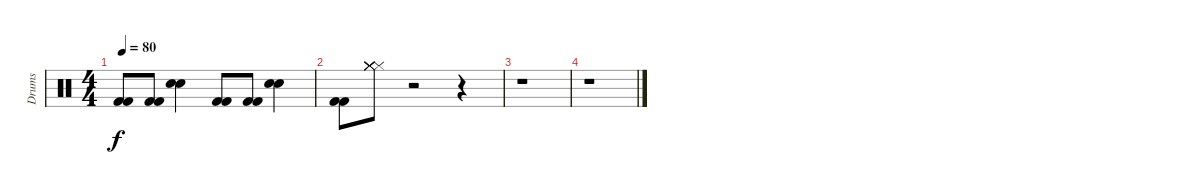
\track ("Drums" "Drums") {instrument percussion}
\staff {score}
\articulation defaults
\ts (4 4)
\tempo 80
\clef neutral
\ks c
("Kick (hit) 2" "Kick (hit) 2").8{dy f} ("Kick (hit) 2" "Kick (hit) 2").8 ("Electric Snare (hit)" "Electric Snare (hit)").4 ("Kick (hit) 2" "Kick (hit) 2").8 ("Kick (hit) 2" "Kick (hit) 2").8 ("Electric Snare (hit)" "Electric Snare (hit)").4 |
("Kick (hit) 2" "Kick (hit) 2").8 ("Hi-Hat (closed)" "Hi-Hat (closed)" "Hi-Hat (closed)" "Hi-Hat (closed)" "Hi-Hat (closed)" "Hi-Hat (closed)").8 r.2 r.4 |
r.1 |
r.1
